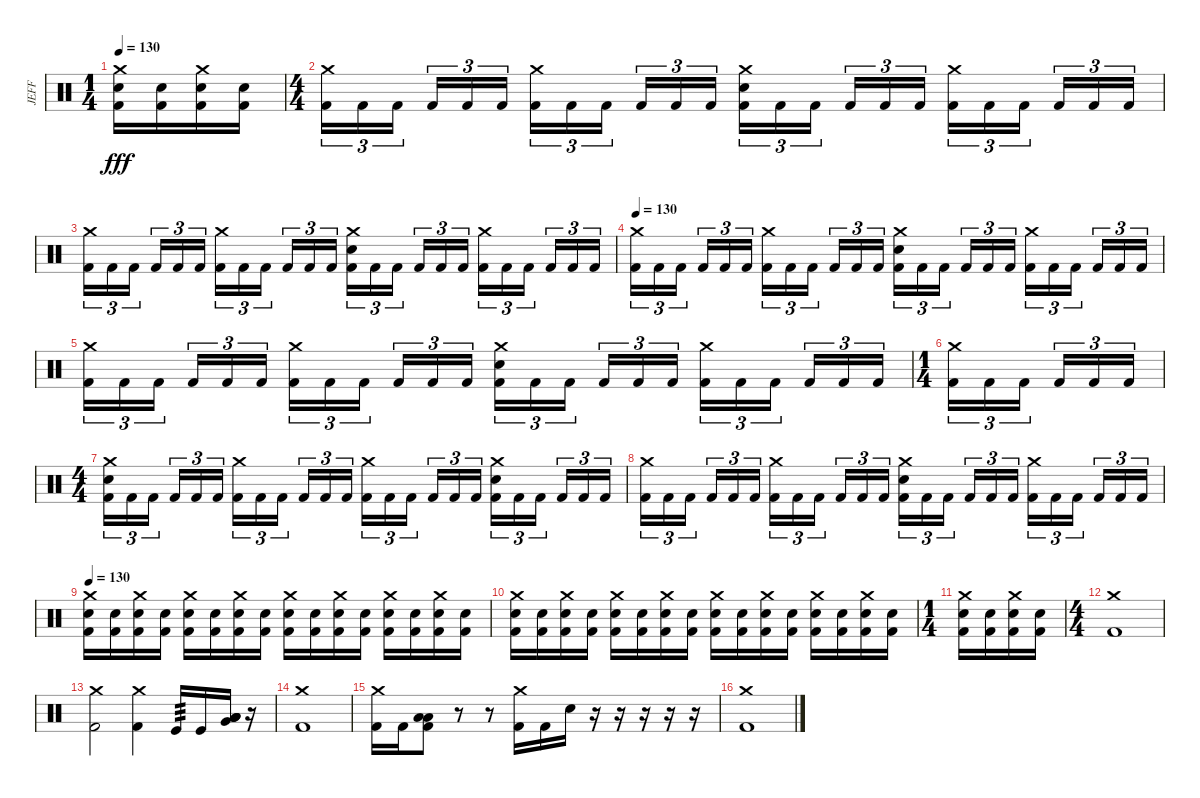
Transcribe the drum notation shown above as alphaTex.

\track ("JEFF" "JEFF") {instrument percussion}
\staff {score}
\articulation defaults
\ts (1 4)
\tempo 130
\clef neutral
\ks c
("Crash medium (hit)" "Electric Snare (hit)" "Kick (hit) 2").16{dy fff} ("Electric Snare (hit)" "Kick (hit) 2").16 ("Crash medium (hit)" "Electric Snare (hit)" "Kick (hit) 2").16 ("Electric Snare (hit)" "Kick (hit) 2").16 |
\ts (4 4)
("Crash medium (hit)" "Kick (hit) 2").16{tu (3 2)} "Kick (hit) 2".16{tu (3 2)} "Kick (hit) 2".16{tu (3 2) beam splitsecondary} "Kick (hit) 2".16{tu (3 2)} "Kick (hit) 2".16{tu (3 2)} "Kick (hit) 2".16{tu (3 2)} ("Crash medium (hit)" "Kick (hit) 2").16{tu (3 2)} "Kick (hit) 2".16{tu (3 2)} "Kick (hit) 2".16{tu (3 2) beam splitsecondary} "Kick (hit) 2".16{tu (3 2)} "Kick (hit) 2".16{tu (3 2)} "Kick (hit) 2".16{tu (3 2)} ("Crash medium (hit)" "Electric Snare (hit)" "Kick (hit) 2").16{tu (3 2)} "Kick (hit) 2".16{tu (3 2)} "Kick (hit) 2".16{tu (3 2) beam splitsecondary} "Kick (hit) 2".16{tu (3 2)} "Kick (hit) 2".16{tu (3 2)} "Kick (hit) 2".16{tu (3 2)} ("Crash medium (hit)" "Kick (hit) 2").16{tu (3 2)} "Kick (hit) 2".16{tu (3 2)} "Kick (hit) 2".16{tu (3 2) beam splitsecondary} "Kick (hit) 2".16{tu (3 2)} "Kick (hit) 2".16{tu (3 2)} "Kick (hit) 2".16{tu (3 2)} |
("Crash medium (hit)" "Kick (hit) 2").16{tu (3 2)} "Kick (hit) 2".16{tu (3 2)} "Kick (hit) 2".16{tu (3 2) beam splitsecondary} "Kick (hit) 2".16{tu (3 2)} "Kick (hit) 2".16{tu (3 2)} "Kick (hit) 2".16{tu (3 2)} ("Crash medium (hit)" "Kick (hit) 2").16{tu (3 2)} "Kick (hit) 2".16{tu (3 2)} "Kick (hit) 2".16{tu (3 2) beam splitsecondary} "Kick (hit) 2".16{tu (3 2)} "Kick (hit) 2".16{tu (3 2)} "Kick (hit) 2".16{tu (3 2)} ("Crash medium (hit)" "Electric Snare (hit)" "Kick (hit) 2").16{tu (3 2)} "Kick (hit) 2".16{tu (3 2)} "Kick (hit) 2".16{tu (3 2) beam splitsecondary} "Kick (hit) 2".16{tu (3 2)} "Kick (hit) 2".16{tu (3 2)} "Kick (hit) 2".16{tu (3 2)} ("Crash medium (hit)" "Kick (hit) 2").16{tu (3 2)} "Kick (hit) 2".16{tu (3 2)} "Kick (hit) 2".16{tu (3 2) beam splitsecondary} "Kick (hit) 2".16{tu (3 2)} "Kick (hit) 2".16{tu (3 2)} "Kick (hit) 2".16{tu (3 2)} |
\tempo 130
("Crash medium (hit)" "Kick (hit) 2").16{tu (3 2)} "Kick (hit) 2".16{tu (3 2)} "Kick (hit) 2".16{tu (3 2) beam splitsecondary} "Kick (hit) 2".16{tu (3 2)} "Kick (hit) 2".16{tu (3 2)} "Kick (hit) 2".16{tu (3 2)} ("Crash medium (hit)" "Kick (hit) 2").16{tu (3 2)} "Kick (hit) 2".16{tu (3 2)} "Kick (hit) 2".16{tu (3 2) beam splitsecondary} "Kick (hit) 2".16{tu (3 2)} "Kick (hit) 2".16{tu (3 2)} "Kick (hit) 2".16{tu (3 2)} ("Crash medium (hit)" "Electric Snare (hit)" "Kick (hit) 2").16{tu (3 2)} "Kick (hit) 2".16{tu (3 2)} "Kick (hit) 2".16{tu (3 2) beam splitsecondary} "Kick (hit) 2".16{tu (3 2)} "Kick (hit) 2".16{tu (3 2)} "Kick (hit) 2".16{tu (3 2)} ("Crash medium (hit)" "Kick (hit) 2").16{tu (3 2)} "Kick (hit) 2".16{tu (3 2)} "Kick (hit) 2".16{tu (3 2) beam splitsecondary} "Kick (hit) 2".16{tu (3 2)} "Kick (hit) 2".16{tu (3 2)} "Kick (hit) 2".16{tu (3 2)} |
("Crash medium (hit)" "Kick (hit) 2").16{tu (3 2)} "Kick (hit) 2".16{tu (3 2)} "Kick (hit) 2".16{tu (3 2) beam splitsecondary} "Kick (hit) 2".16{tu (3 2)} "Kick (hit) 2".16{tu (3 2)} "Kick (hit) 2".16{tu (3 2)} ("Crash medium (hit)" "Kick (hit) 2").16{tu (3 2)} "Kick (hit) 2".16{tu (3 2)} "Kick (hit) 2".16{tu (3 2) beam splitsecondary} "Kick (hit) 2".16{tu (3 2)} "Kick (hit) 2".16{tu (3 2)} "Kick (hit) 2".16{tu (3 2)} ("Crash medium (hit)" "Electric Snare (hit)" "Kick (hit) 2").16{tu (3 2)} "Kick (hit) 2".16{tu (3 2)} "Kick (hit) 2".16{tu (3 2) beam splitsecondary} "Kick (hit) 2".16{tu (3 2)} "Kick (hit) 2".16{tu (3 2)} "Kick (hit) 2".16{tu (3 2)} ("Crash medium (hit)" "Kick (hit) 2").16{tu (3 2)} "Kick (hit) 2".16{tu (3 2)} "Kick (hit) 2".16{tu (3 2) beam splitsecondary} "Kick (hit) 2".16{tu (3 2)} "Kick (hit) 2".16{tu (3 2)} "Kick (hit) 2".16{tu (3 2)} |
\ts (1 4)
("Crash medium (hit)" "Kick (hit) 2").16{tu (3 2)} "Kick (hit) 2".16{tu (3 2)} "Kick (hit) 2".16{tu (3 2) beam splitsecondary} "Kick (hit) 2".16{tu (3 2)} "Kick (hit) 2".16{tu (3 2)} "Kick (hit) 2".16{tu (3 2)} |
\ts (4 4)
("Crash medium (hit)" "Electric Snare (hit)" "Kick (hit) 2").16{tu (3 2)} "Kick (hit) 2".16{tu (3 2)} "Kick (hit) 2".16{tu (3 2) beam splitsecondary} "Kick (hit) 2".16{tu (3 2)} "Kick (hit) 2".16{tu (3 2)} "Kick (hit) 2".16{tu (3 2)} ("Crash medium (hit)" "Kick (hit) 2").16{tu (3 2)} "Kick (hit) 2".16{tu (3 2)} "Kick (hit) 2".16{tu (3 2) beam splitsecondary} "Kick (hit) 2".16{tu (3 2)} "Kick (hit) 2".16{tu (3 2)} "Kick (hit) 2".16{tu (3 2)} ("Crash medium (hit)" "Kick (hit) 2").16{tu (3 2)} "Kick (hit) 2".16{tu (3 2)} "Kick (hit) 2".16{tu (3 2) beam splitsecondary} "Kick (hit) 2".16{tu (3 2)} "Kick (hit) 2".16{tu (3 2)} "Kick (hit) 2".16{tu (3 2)} ("Crash medium (hit)" "Electric Snare (hit)" "Kick (hit) 2").16{tu (3 2)} "Kick (hit) 2".16{tu (3 2)} "Kick (hit) 2".16{tu (3 2) beam splitsecondary} "Kick (hit) 2".16{tu (3 2)} "Kick (hit) 2".16{tu (3 2)} "Kick (hit) 2".16{tu (3 2)} |
("Crash medium (hit)" "Kick (hit) 2").16{tu (3 2)} "Kick (hit) 2".16{tu (3 2)} "Kick (hit) 2".16{tu (3 2) beam splitsecondary} "Kick (hit) 2".16{tu (3 2)} "Kick (hit) 2".16{tu (3 2)} "Kick (hit) 2".16{tu (3 2)} ("Crash medium (hit)" "Kick (hit) 2").16{tu (3 2)} "Kick (hit) 2".16{tu (3 2)} "Kick (hit) 2".16{tu (3 2) beam splitsecondary} "Kick (hit) 2".16{tu (3 2)} "Kick (hit) 2".16{tu (3 2)} "Kick (hit) 2".16{tu (3 2)} ("Crash medium (hit)" "Electric Snare (hit)" "Kick (hit) 2").16{tu (3 2)} "Kick (hit) 2".16{tu (3 2)} "Kick (hit) 2".16{tu (3 2) beam splitsecondary} "Kick (hit) 2".16{tu (3 2)} "Kick (hit) 2".16{tu (3 2)} "Kick (hit) 2".16{tu (3 2)} ("Crash medium (hit)" "Kick (hit) 2").16{tu (3 2)} "Kick (hit) 2".16{tu (3 2)} "Kick (hit) 2".16{tu (3 2) beam splitsecondary} "Kick (hit) 2".16{tu (3 2)} "Kick (hit) 2".16{tu (3 2)} "Kick (hit) 2".16{tu (3 2)} |
\tempo 130
("Crash medium (hit)" "Electric Snare (hit)" "Kick (hit) 2").16 ("Electric Snare (hit)" "Kick (hit) 2").16 ("Crash medium (hit)" "Electric Snare (hit)" "Kick (hit) 2").16 ("Electric Snare (hit)" "Kick (hit) 2").16 ("Crash medium (hit)" "Electric Snare (hit)" "Kick (hit) 2").16 ("Electric Snare (hit)" "Kick (hit) 2").16 ("Crash medium (hit)" "Electric Snare (hit)" "Kick (hit) 2").16 ("Electric Snare (hit)" "Kick (hit) 2").16 ("Crash medium (hit)" "Electric Snare (hit)" "Kick (hit) 2").16 ("Electric Snare (hit)" "Kick (hit) 2").16 ("Crash medium (hit)" "Electric Snare (hit)" "Kick (hit) 2").16 ("Electric Snare (hit)" "Kick (hit) 2").16 ("Crash medium (hit)" "Electric Snare (hit)" "Kick (hit) 2").16 ("Electric Snare (hit)" "Kick (hit) 2").16 ("Crash medium (hit)" "Electric Snare (hit)" "Kick (hit) 2").16 ("Electric Snare (hit)" "Kick (hit) 2").16 |
("Crash medium (hit)" "Electric Snare (hit)" "Kick (hit) 2").16 ("Electric Snare (hit)" "Kick (hit) 2").16 ("Crash medium (hit)" "Electric Snare (hit)" "Kick (hit) 2").16 ("Electric Snare (hit)" "Kick (hit) 2").16 ("Crash medium (hit)" "Electric Snare (hit)" "Kick (hit) 2").16 ("Electric Snare (hit)" "Kick (hit) 2").16 ("Crash medium (hit)" "Electric Snare (hit)" "Kick (hit) 2").16 ("Electric Snare (hit)" "Kick (hit) 2").16 ("Crash medium (hit)" "Electric Snare (hit)" "Kick (hit) 2").16 ("Electric Snare (hit)" "Kick (hit) 2").16 ("Crash medium (hit)" "Electric Snare (hit)" "Kick (hit) 2").16 ("Electric Snare (hit)" "Kick (hit) 2").16 ("Crash medium (hit)" "Electric Snare (hit)" "Kick (hit) 2").16 ("Electric Snare (hit)" "Kick (hit) 2").16 ("Crash medium (hit)" "Electric Snare (hit)" "Kick (hit) 2").16 ("Electric Snare (hit)" "Kick (hit) 2").16 |
\ts (1 4)
("Crash medium (hit)" "Electric Snare (hit)" "Kick (hit) 2").16 ("Electric Snare (hit)" "Kick (hit) 2").16 ("Crash medium (hit)" "Electric Snare (hit)" "Kick (hit) 2").16 ("Electric Snare (hit)" "Kick (hit) 2").16 |
\ts (4 4)
("Crash medium (hit)" "Kick (hit) 2").1 |
("Crash medium (hit)" "Kick (hit) 2").2 ("Crash medium (hit)" "Kick (hit) 2").4 "Kick (hit)".16{tp 3} "Kick (hit)".16 ("Very Low Tom (hit)" "Low Tom (hit)" "Low Floor Tom (hit)" "Low Floor Tom (hit)").16 r.16 |
("Crash medium (hit)" "Kick (hit) 2").1 |
("Crash medium (hit)" "Kick (hit) 2").16 "Kick (hit) 2".16 ("Low Floor Tom (hit)" "Low Floor Tom (hit)" "Kick (hit) 2").8 r.8 r.8 ("Crash medium (hit)" "Kick (hit) 2").16 "Kick (hit) 2".16 "Electric Snare (hit)".16 r.16 r.16 r.16 r.16 r.16 |
("Crash medium (hit)" "Kick (hit) 2").1
